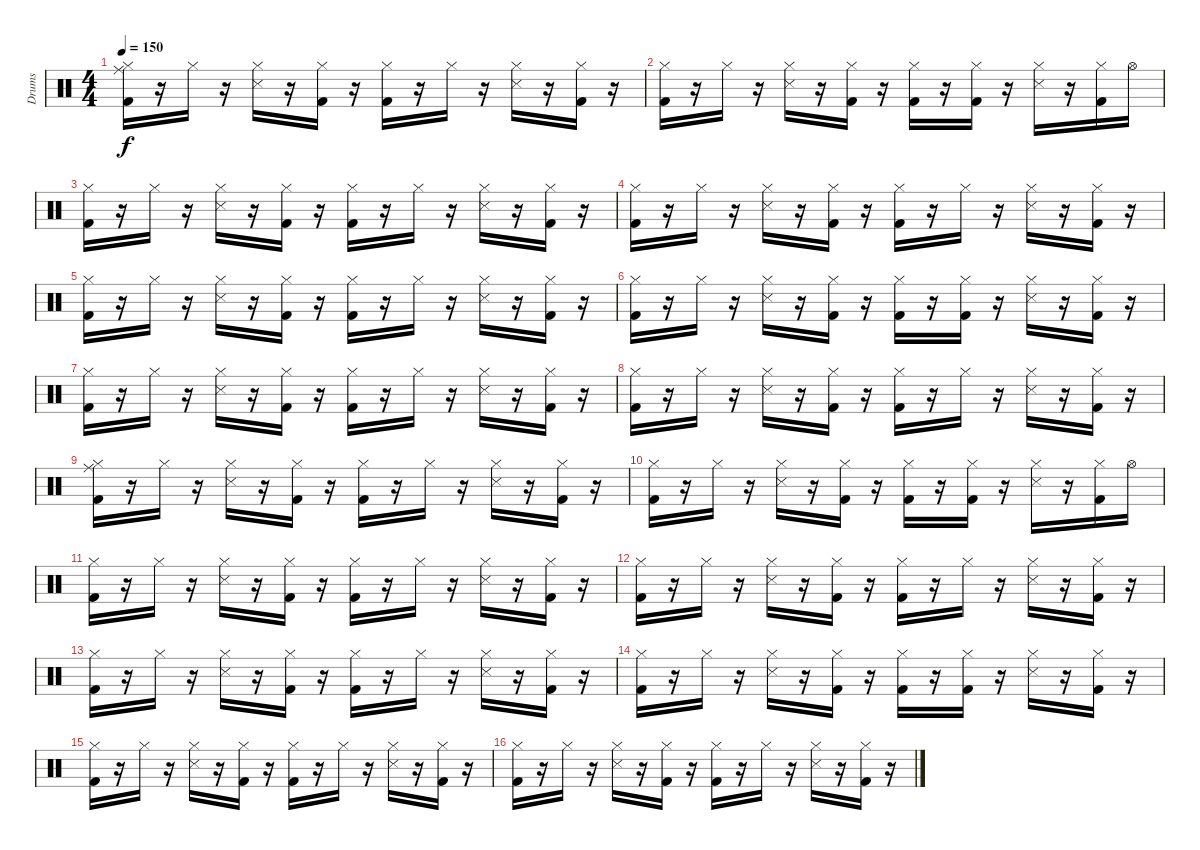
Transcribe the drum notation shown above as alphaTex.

\track ("Drums" "Drums") {instrument percussion}
\staff {score}
\articulation defaults
\ts (4 4)
\tempo 150
\clef neutral
\ks c
("Kick (hit) 2" "Hi-Hat (closed)" "Ride (middle)").16{dy f} r.16 "Hi-Hat (closed)".16{volume 11} r.16 ("Hi-Hat (closed)" "Snare (side stick) 3").16 r.16 ("Kick (hit) 2" "Hi-Hat (closed)").16 r.16 ("Kick (hit) 2" "Hi-Hat (closed)").16 r.16 "Hi-Hat (closed)".16 r.16 ("Hi-Hat (closed)" "Snare (side stick) 3").16 r.16 ("Kick (hit) 2" "Hi-Hat (closed)").16 r.16 |
("Kick (hit) 2" "Hi-Hat (closed)").16 r.16 "Hi-Hat (closed)".16 r.16 ("Hi-Hat (closed)" "Snare (side stick) 3").16 r.16 ("Kick (hit) 2" "Hi-Hat (closed)").16 r.16 ("Kick (hit) 2" "Hi-Hat (closed)").16 r.16 ("Kick (hit) 2" "Hi-Hat (closed)").16 r.16 ("Hi-Hat (closed)" "Snare (side stick) 3").16 r.16 ("Kick (hit) 2" "Hi-Hat (closed)").16 "Hi-Hat (open)".16 |
("Kick (hit) 2" "Hi-Hat (closed)").16 r.16 "Hi-Hat (closed)".16 r.16 ("Hi-Hat (closed)" "Snare (side stick) 3").16 r.16 ("Kick (hit) 2" "Hi-Hat (closed)").16 r.16 ("Kick (hit) 2" "Hi-Hat (closed)").16 r.16 "Hi-Hat (closed)".16 r.16 ("Hi-Hat (closed)" "Snare (side stick) 3").16 r.16 ("Kick (hit) 2" "Hi-Hat (closed)").16 r.16 |
("Kick (hit) 2" "Hi-Hat (closed)").16 r.16 "Hi-Hat (closed)".16 r.16 ("Hi-Hat (closed)" "Snare (side stick) 3").16 r.16 ("Kick (hit) 2" "Hi-Hat (closed)").16 r.16 ("Kick (hit) 2" "Hi-Hat (closed)").16 r.16 "Hi-Hat (closed)".16 r.16 ("Hi-Hat (closed)" "Snare (side stick) 3").16 r.16 ("Kick (hit) 2" "Hi-Hat (closed)").16 r.16 |
("Kick (hit) 2" "Hi-Hat (closed)").16 r.16 "Hi-Hat (closed)".16 r.16 ("Hi-Hat (closed)" "Snare (side stick) 3").16 r.16 ("Kick (hit) 2" "Hi-Hat (closed)").16 r.16 ("Kick (hit) 2" "Hi-Hat (closed)").16 r.16 "Hi-Hat (closed)".16 r.16 ("Hi-Hat (closed)" "Snare (side stick) 3").16 r.16 ("Kick (hit) 2" "Hi-Hat (closed)").16 r.16 |
("Kick (hit) 2" "Hi-Hat (closed)").16 r.16 "Hi-Hat (closed)".16 r.16 ("Hi-Hat (closed)" "Snare (side stick) 3").16 r.16 ("Kick (hit) 2" "Hi-Hat (closed)").16 r.16 ("Kick (hit) 2" "Hi-Hat (closed)").16 r.16 ("Kick (hit) 2" "Hi-Hat (closed)").16 r.16 ("Hi-Hat (closed)" "Snare (side stick) 3").16 r.16 ("Kick (hit) 2" "Hi-Hat (closed)").16 r.16 |
("Kick (hit) 2" "Hi-Hat (closed)").16 r.16 "Hi-Hat (closed)".16 r.16 ("Hi-Hat (closed)" "Snare (side stick) 3").16 r.16 ("Kick (hit) 2" "Hi-Hat (closed)").16 r.16 ("Kick (hit) 2" "Hi-Hat (closed)").16 r.16 "Hi-Hat (closed)".16 r.16 ("Hi-Hat (closed)" "Snare (side stick) 3").16 r.16 ("Kick (hit) 2" "Hi-Hat (closed)").16 r.16 |
("Kick (hit) 2" "Hi-Hat (closed)").16 r.16 "Hi-Hat (closed)".16 r.16 ("Hi-Hat (closed)" "Snare (side stick) 3").16 r.16 ("Kick (hit) 2" "Hi-Hat (closed)").16 r.16 ("Kick (hit) 2" "Hi-Hat (closed)").16 r.16 "Hi-Hat (closed)".16 r.16 ("Hi-Hat (closed)" "Snare (side stick) 3").16 r.16 ("Kick (hit) 2" "Hi-Hat (closed)").16 r.16 |
("Kick (hit) 2" "Hi-Hat (closed)" "Ride (middle)").16 r.16 "Hi-Hat (closed)".16{volume 16} r.16 ("Hi-Hat (closed)" "Snare (side stick) 3").16 r.16 ("Kick (hit) 2" "Hi-Hat (closed)").16 r.16 ("Kick (hit) 2" "Hi-Hat (closed)").16 r.16 "Hi-Hat (closed)".16 r.16 ("Hi-Hat (closed)" "Snare (side stick) 3").16 r.16 ("Kick (hit) 2" "Hi-Hat (closed)").16 r.16 |
("Kick (hit) 2" "Hi-Hat (closed)").16 r.16 "Hi-Hat (closed)".16 r.16 ("Hi-Hat (closed)" "Snare (side stick) 3").16 r.16 ("Kick (hit) 2" "Hi-Hat (closed)").16 r.16 ("Kick (hit) 2" "Hi-Hat (closed)").16 r.16 ("Kick (hit) 2" "Hi-Hat (closed)").16 r.16 ("Hi-Hat (closed)" "Snare (side stick) 3").16 r.16 ("Kick (hit) 2" "Hi-Hat (closed)").16 "Hi-Hat (open)".16 |
("Kick (hit) 2" "Hi-Hat (closed)").16 r.16 "Hi-Hat (closed)".16 r.16 ("Hi-Hat (closed)" "Snare (side stick) 3").16 r.16 ("Kick (hit) 2" "Hi-Hat (closed)").16 r.16 ("Kick (hit) 2" "Hi-Hat (closed)").16 r.16 "Hi-Hat (closed)".16 r.16 ("Hi-Hat (closed)" "Snare (side stick) 3").16 r.16 ("Kick (hit) 2" "Hi-Hat (closed)").16 r.16 |
("Kick (hit) 2" "Hi-Hat (closed)").16 r.16 "Hi-Hat (closed)".16 r.16 ("Hi-Hat (closed)" "Snare (side stick) 3").16 r.16 ("Kick (hit) 2" "Hi-Hat (closed)").16 r.16 ("Kick (hit) 2" "Hi-Hat (closed)").16 r.16 "Hi-Hat (closed)".16 r.16 ("Hi-Hat (closed)" "Snare (side stick) 3").16 r.16 ("Kick (hit) 2" "Hi-Hat (closed)").16 r.16 |
("Kick (hit) 2" "Hi-Hat (closed)").16 r.16 "Hi-Hat (closed)".16 r.16 ("Hi-Hat (closed)" "Snare (side stick) 3").16 r.16 ("Kick (hit) 2" "Hi-Hat (closed)").16 r.16 ("Kick (hit) 2" "Hi-Hat (closed)").16 r.16 "Hi-Hat (closed)".16 r.16 ("Hi-Hat (closed)" "Snare (side stick) 3").16 r.16 ("Kick (hit) 2" "Hi-Hat (closed)").16 r.16 |
("Kick (hit) 2" "Hi-Hat (closed)").16 r.16 "Hi-Hat (closed)".16 r.16 ("Hi-Hat (closed)" "Snare (side stick) 3").16 r.16 ("Kick (hit) 2" "Hi-Hat (closed)").16 r.16 ("Kick (hit) 2" "Hi-Hat (closed)").16 r.16 ("Kick (hit) 2" "Hi-Hat (closed)").16 r.16 ("Hi-Hat (closed)" "Snare (side stick) 3").16 r.16 ("Kick (hit) 2" "Hi-Hat (closed)").16 r.16 |
("Kick (hit) 2" "Hi-Hat (closed)").16 r.16 "Hi-Hat (closed)".16 r.16 ("Hi-Hat (closed)" "Snare (side stick) 3").16 r.16 ("Kick (hit) 2" "Hi-Hat (closed)").16 r.16 ("Kick (hit) 2" "Hi-Hat (closed)").16 r.16 "Hi-Hat (closed)".16 r.16 ("Hi-Hat (closed)" "Snare (side stick) 3").16 r.16 ("Kick (hit) 2" "Hi-Hat (closed)").16 r.16 |
("Kick (hit) 2" "Hi-Hat (closed)").16 r.16 "Hi-Hat (closed)".16 r.16 ("Hi-Hat (closed)" "Snare (side stick) 3").16 r.16 ("Kick (hit) 2" "Hi-Hat (closed)").16 r.16 ("Kick (hit) 2" "Hi-Hat (closed)").16 r.16 "Hi-Hat (closed)".16 r.16 ("Hi-Hat (closed)" "Snare (side stick) 3").16 r.16 ("Kick (hit) 2" "Hi-Hat (closed)").16 r.16
